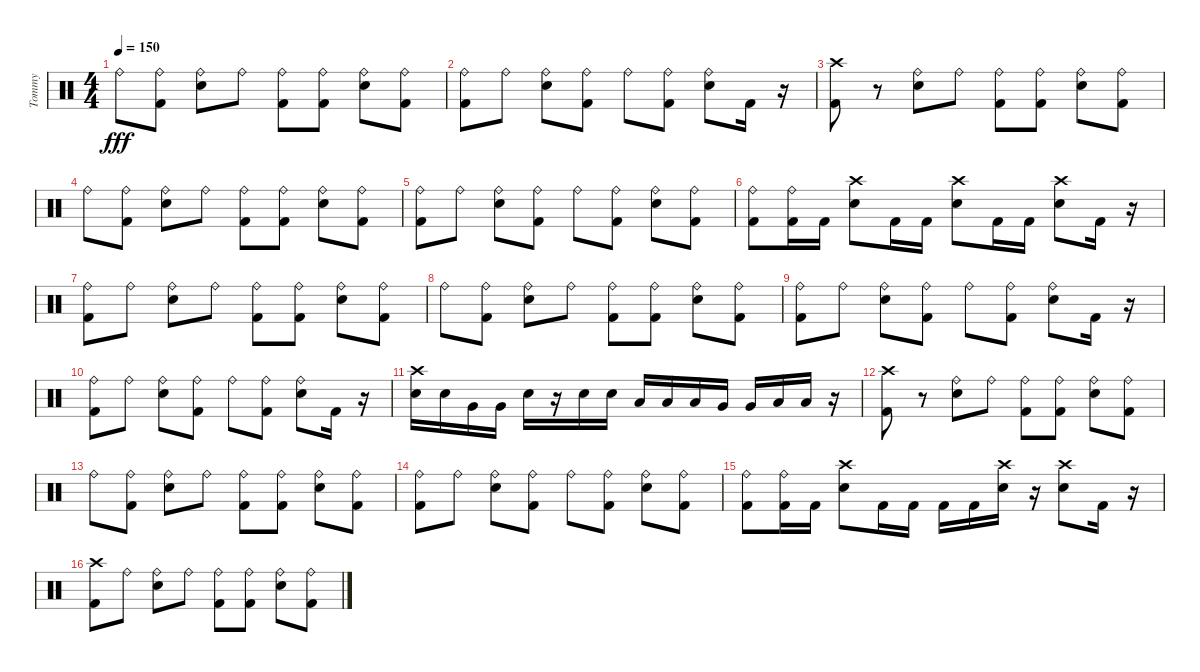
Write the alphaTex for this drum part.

\track ("Tommy" "Tommy") {instrument percussion}
\staff {score}
\articulation defaults
\ts (4 4)
\tempo 150
\clef neutral
\ks c "Ride (bell)".8{dy fff}
("Ride (bell)" "Kick (hit) 2").8 ("Ride (bell)" "Snare (hit) 2").8 "Ride (bell)".8 ("Ride (bell)" "Kick (hit) 2").8 ("Ride (bell)" "Kick (hit) 2").8 ("Ride (bell)" "Snare (hit) 2").8 ("Ride (bell)" "Kick (hit) 2").8 |
("Kick (hit) 2" "Ride (bell)").8 "Ride (bell)".8 ("Snare (hit) 2" "Ride (bell)").8 ("Kick (hit) 2" "Ride (bell)").8 "Ride (bell)".8 ("Kick (hit) 2" "Ride (bell)").8 ("Snare (hit) 2" "Ride (bell)").8 "Kick (hit) 2".16 r.16 |
("Kick (hit) 2" "Crash high (hit)").8 r.8 ("Ride (bell)" "Snare (hit) 2").8 "Ride (bell)".8 ("Ride (bell)" "Kick (hit) 2").8 ("Ride (bell)" "Kick (hit) 2").8 ("Ride (bell)" "Snare (hit) 2").8 ("Ride (bell)" "Kick (hit) 2").8 |
"Ride (bell)".8 ("Ride (bell)" "Kick (hit) 2").8 ("Ride (bell)" "Snare (hit) 2").8 "Ride (bell)".8 ("Ride (bell)" "Kick (hit) 2").8 ("Ride (bell)" "Kick (hit) 2").8 ("Ride (bell)" "Snare (hit) 2").8 ("Ride (bell)" "Kick (hit) 2").8 |
("Ride (bell)" "Kick (hit) 2").8 "Ride (bell)".8 ("Ride (bell)" "Snare (hit) 2").8 ("Ride (bell)" "Kick (hit) 2").8 "Ride (bell)".8 ("Ride (bell)" "Kick (hit) 2").8 ("Ride (bell)" "Snare (hit) 2").8 ("Ride (bell)" "Kick (hit) 2").8 |
("Ride (bell)" "Kick (hit) 2").8 ("Ride (bell)" "Kick (hit) 2").16 "Kick (hit) 2".16 ("Snare (hit) 2" "Crash high (hit)").8 "Kick (hit) 2".16 "Kick (hit) 2".16 ("Snare (hit) 2" "Crash high (hit)").8 "Kick (hit) 2".16 "Kick (hit) 2".16 ("Snare (hit) 2" "Crash high (hit)").8 "Kick (hit) 2".16 r.16 |
("Ride (bell)" "Kick (hit) 2").8 "Ride (bell)".8 ("Ride (bell)" "Snare (hit) 2").8 "Ride (bell)".8 ("Ride (bell)" "Kick (hit) 2").8 ("Ride (bell)" "Kick (hit) 2").8 ("Ride (bell)" "Snare (hit) 2").8 ("Ride (bell)" "Kick (hit) 2").8 |
"Ride (bell)".8 ("Ride (bell)" "Kick (hit) 2").8 ("Ride (bell)" "Snare (hit) 2").8 "Ride (bell)".8 ("Ride (bell)" "Kick (hit) 2").8 ("Ride (bell)" "Kick (hit) 2").8 ("Ride (bell)" "Snare (hit) 2").8 ("Ride (bell)" "Kick (hit) 2").8 |
("Kick (hit) 2" "Ride (bell)").8 "Ride (bell)".8 ("Snare (hit) 2" "Ride (bell)").8 ("Kick (hit) 2" "Ride (bell)").8 "Ride (bell)".8 ("Kick (hit) 2" "Ride (bell)").8 ("Snare (hit) 2" "Ride (bell)").8 "Kick (hit) 2".16 r.16 |
("Kick (hit) 2" "Ride (bell)").8 "Ride (bell)".8 ("Snare (hit) 2" "Ride (bell)").8 ("Kick (hit) 2" "Ride (bell)").8 "Ride (bell)".8 ("Kick (hit) 2" "Ride (bell)").8 ("Snare (hit) 2" "Ride (bell)").8 "Kick (hit) 2".16 r.16 |
("Snare (hit) 2" "Crash high (hit)").16 "Snare (hit) 2".16 "Very Low Tom (hit)".16 "Very Low Tom (hit)".16 "Snare (hit) 2".16 r.16 "Snare (hit) 2".16 "Snare (hit) 2".16 "Low Tom (hit)".16 "Low Tom (hit)".16 "Low Tom (hit)".16 "Very Low Tom (hit)".16 "Very Low Tom (hit)".16 "Low Floor Tom (hit)".16 "Low Floor Tom (hit)".16 r.16 |
("Kick (hit) 2" "Crash high (hit)").8 r.8 ("Ride (bell)" "Snare (hit) 2").8 "Ride (bell)".8 ("Ride (bell)" "Kick (hit) 2").8 ("Ride (bell)" "Kick (hit) 2").8 ("Ride (bell)" "Snare (hit) 2").8 ("Ride (bell)" "Kick (hit) 2").8 |
"Ride (bell)".8 ("Ride (bell)" "Kick (hit) 2").8 ("Ride (bell)" "Snare (hit) 2").8 "Ride (bell)".8 ("Ride (bell)" "Kick (hit) 2").8 ("Ride (bell)" "Kick (hit) 2").8 ("Ride (bell)" "Snare (hit) 2").8 ("Ride (bell)" "Kick (hit) 2").8 |
("Ride (bell)" "Kick (hit) 2").8 "Ride (bell)".8 ("Ride (bell)" "Snare (hit) 2").8 ("Ride (bell)" "Kick (hit) 2").8 "Ride (bell)".8 ("Ride (bell)" "Kick (hit) 2").8 ("Ride (bell)" "Snare (hit) 2").8 ("Ride (bell)" "Kick (hit) 2").8 |
("Ride (bell)" "Kick (hit) 2").8 ("Ride (bell)" "Kick (hit) 2").16 "Kick (hit) 2".16 ("Crash high (hit)" "Snare (hit) 2").8 "Kick (hit) 2".16 "Kick (hit) 2".16 "Kick (hit) 2".16 "Kick (hit) 2".16 ("Crash high (hit)" "Snare (hit) 2").16 r.16 ("Crash high (hit)" "Snare (hit) 2").8 "Kick (hit) 2".16 r.16 |
("Kick (hit) 2" "Crash high (hit)").8 "Ride (bell)".8 ("Ride (bell)" "Snare (hit) 2").8 "Ride (bell)".8 ("Ride (bell)" "Kick (hit) 2").8 ("Ride (bell)" "Kick (hit) 2").8 ("Ride (bell)" "Snare (hit) 2").8 ("Ride (bell)" "Kick (hit) 2").8
